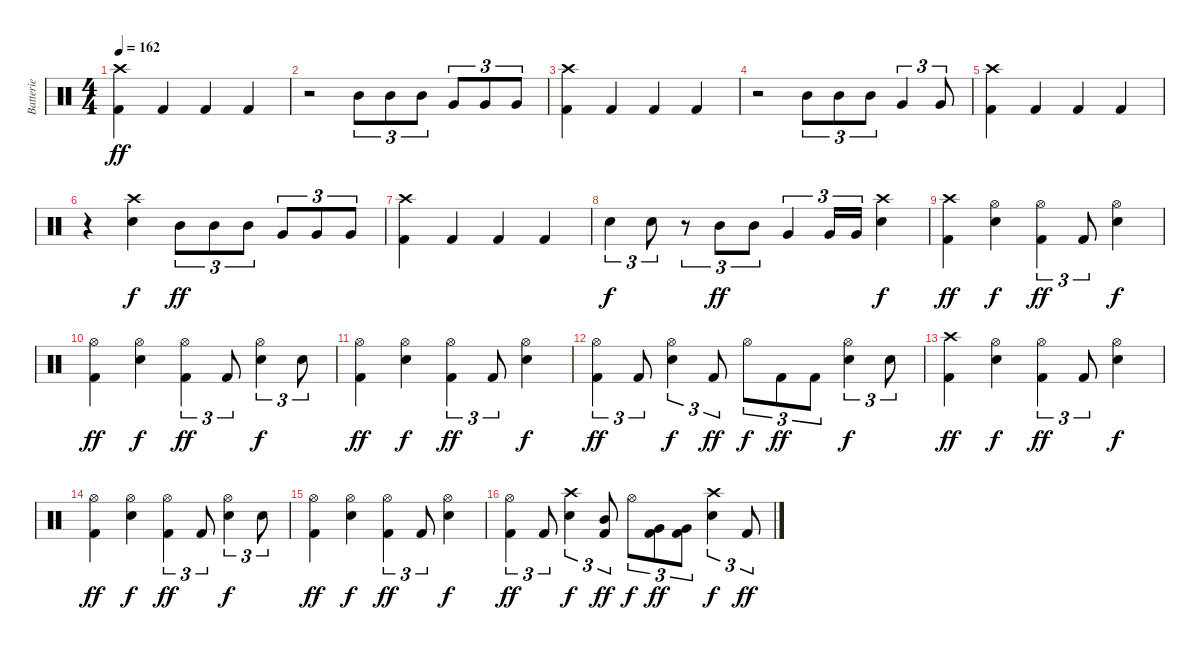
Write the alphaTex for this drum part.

\track ("Batterie" "Batterie") {instrument percussion}
\staff {score}
\articulation defaults
\ts (4 4)
\tempo 162
\clef neutral
\ks c
("Crash high (hit)" "Kick (hit) 2").4{dy ff} "Kick (hit) 2".4 "Kick (hit) 2".4 "Kick (hit) 2".4 |
r.2 "Mid Tom (hit)".8{tu (3 2)} "Mid Tom (hit)".8{tu (3 2)} "Mid Tom (hit)".8{tu (3 2)} "Very Low Tom (hit)".8{tu (3 2)} "Very Low Tom (hit)".8{tu (3 2)} "Very Low Tom (hit)".8{tu (3 2)} |
("Crash high (hit)" "Kick (hit) 2").4 "Kick (hit) 2".4 "Kick (hit) 2".4 "Kick (hit) 2".4 |
r.2 "Mid Tom (hit)".8{tu (3 2)} "Mid Tom (hit)".8{tu (3 2)} "Mid Tom (hit)".8{tu (3 2)} "Very Low Tom (hit)".4{tu (3 2)} "Very Low Tom (hit)".8{tu (3 2)} |
("Crash high (hit)" "Kick (hit) 2").4 "Kick (hit) 2".4 "Kick (hit) 2".4 "Kick (hit) 2".4 |
r.4 ("Crash high (hit)" "Snare (hit) 2").4{dy f} "Mid Tom (hit)".8{tu (3 2) dy ff} "Mid Tom (hit)".8{tu (3 2)} "Mid Tom (hit)".8{tu (3 2)} "Very Low Tom (hit)".8{tu (3 2)} "Very Low Tom (hit)".8{tu (3 2)} "Very Low Tom (hit)".8{tu (3 2)} |
("Crash high (hit)" "Kick (hit) 2").4 "Kick (hit) 2".4 "Kick (hit) 2".4 "Kick (hit) 2".4 |
"Snare (hit) 2".4{tu (3 2) dy f} "Snare (hit) 2".8{tu (3 2)} r.8{tu (3 2)} "Mid Tom (hit)".8{tu (3 2) dy ff} "Mid Tom (hit)".8{tu (3 2)} "Very Low Tom (hit)".4{tu (3 2)} "Very Low Tom (hit)".16{tu (3 2)} "Very Low Tom (hit)".16{tu (3 2)} ("Crash high (hit)" "Snare (hit) 2").4{dy f} |
("Crash high (hit)" "Kick (hit) 2").4{dy ff} ("Hi-Hat (open)" "Snare (hit) 2").4{dy f} ("Hi-Hat (open)" "Kick (hit) 2").4{tu (3 2) dy ff} "Kick (hit) 2".8{tu (3 2)} ("Hi-Hat (open)" "Snare (hit) 2").4{dy f} |
("Hi-Hat (open)" "Kick (hit) 2").4{dy ff} ("Hi-Hat (open)" "Snare (hit) 2").4{dy f} ("Hi-Hat (open)" "Kick (hit) 2").4{tu (3 2) dy ff} "Kick (hit) 2".8{tu (3 2)} ("Hi-Hat (open)" "Snare (hit) 2").4{tu (3 2) dy f} "Snare (hit) 2".8{tu (3 2)} |
("Hi-Hat (open)" "Kick (hit) 2").4{dy ff} ("Hi-Hat (open)" "Snare (hit) 2").4{dy f} ("Hi-Hat (open)" "Kick (hit) 2").4{tu (3 2) dy ff} "Kick (hit) 2".8{tu (3 2)} ("Hi-Hat (open)" "Snare (hit) 2").4{dy f} |
("Hi-Hat (open)" "Kick (hit) 2").4{tu (3 2) dy ff} "Kick (hit) 2".8{tu (3 2)} ("Hi-Hat (open)" "Snare (hit) 2").4{tu (3 2) dy f} "Kick (hit) 2".8{tu (3 2) dy ff} "Hi-Hat (open)".8{tu (3 2) dy f} "Kick (hit) 2".8{tu (3 2) dy ff} "Kick (hit) 2".8{tu (3 2)} ("Hi-Hat (open)" "Snare (hit) 2").4{tu (3 2) dy f} "Snare (hit) 2".8{tu (3 2)} |
("Crash high (hit)" "Kick (hit) 2").4{dy ff} ("Hi-Hat (open)" "Snare (hit) 2").4{dy f} ("Hi-Hat (open)" "Kick (hit) 2").4{tu (3 2) dy ff} "Kick (hit) 2".8{tu (3 2)} ("Hi-Hat (open)" "Snare (hit) 2").4{dy f} |
("Hi-Hat (open)" "Kick (hit) 2").4{dy ff} ("Hi-Hat (open)" "Snare (hit) 2").4{dy f} ("Hi-Hat (open)" "Kick (hit) 2").4{tu (3 2) dy ff} "Kick (hit) 2".8{tu (3 2)} ("Hi-Hat (open)" "Snare (hit) 2").4{tu (3 2) dy f} "Snare (hit) 2".8{tu (3 2)} |
("Hi-Hat (open)" "Kick (hit) 2").4{dy ff} ("Hi-Hat (open)" "Snare (hit) 2").4{dy f} ("Hi-Hat (open)" "Kick (hit) 2").4{tu (3 2) dy ff} "Kick (hit) 2".8{tu (3 2)} ("Hi-Hat (open)" "Snare (hit) 2").4{dy f} |
("Hi-Hat (open)" "Kick (hit) 2").4{tu (3 2) dy ff} "Kick (hit) 2".8{tu (3 2)} ("Crash high (hit)" "Snare (hit) 2").4{tu (3 2) dy f} ("Mid Tom (hit)" "Kick (hit) 2").8{tu (3 2) dy ff} "Hi-Hat (open)".8{tu (3 2) dy f} ("Very Low Tom (hit)" "Kick (hit) 2").8{tu (3 2) dy ff} ("Very Low Tom (hit)" "Kick (hit) 2").8{tu (3 2)} ("Crash high (hit)" "Snare (hit) 2").4{tu (3 2) dy f} "Kick (hit) 2".8{tu (3 2) dy ff}
